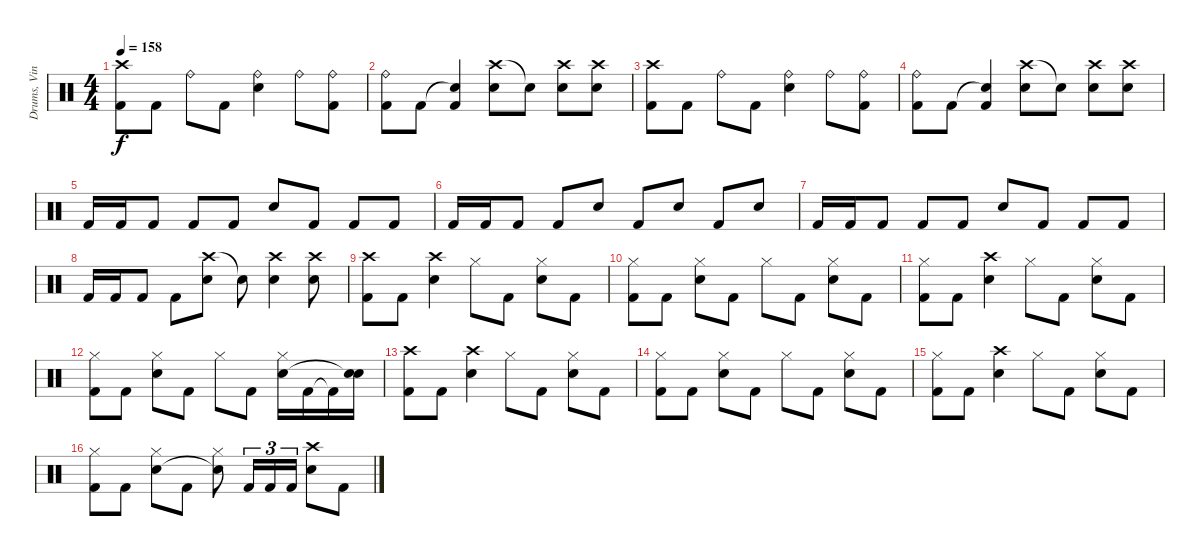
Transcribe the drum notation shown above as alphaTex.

\track ("Drums, Vinnie" "Drums, Vin") {instrument percussion}
\staff {score}
\articulation defaults
\ts (4 4)
\tempo 158
\clef neutral
\ks c
("Crash high (hit)" "Kick (hit) 2").8{dy f} "Kick (hit) 2".8 "Ride (bell)".8 "Kick (hit) 2".8 ("Ride (bell)" "Electric Snare (hit)").4 "Ride (bell)".8 ("Ride (bell)" "Kick (hit) 2").8 |
("Ride (bell)" "Kick (hit) 2").8 "Kick (hit) 2".8 ("Snare (hit)"{t} "Kick (hit) 2").4 ("Crash high (hit)" "Electric Snare (hit)").8 "Snare (hit)"{t}.8 ("Crash high (hit)" "Electric Snare (hit)").8 ("Crash high (hit)" "Electric Snare (hit)").8 |
("Crash high (hit)" "Kick (hit) 2").8 "Kick (hit) 2".8 "Ride (bell)".8 "Kick (hit) 2".8 ("Ride (bell)" "Electric Snare (hit)").4 "Ride (bell)".8 ("Ride (bell)" "Kick (hit) 2").8 |
("Ride (bell)" "Kick (hit) 2").8 "Kick (hit) 2".8 ("Snare (hit)"{t} "Kick (hit) 2").4 ("Crash high (hit)" "Electric Snare (hit)").8 "Snare (hit)"{t}.8 ("Crash high (hit)" "Electric Snare (hit)").8 ("Crash high (hit)" "Electric Snare (hit)").8 |
"Kick (hit) 2".16 "Kick (hit) 2".16 "Kick (hit) 2".8 "Kick (hit) 2".8 "Kick (hit) 2".8 "Electric Snare (hit)".8 "Kick (hit) 2".8 "Kick (hit) 2".8 "Kick (hit) 2".8 |
"Kick (hit) 2".16 "Kick (hit) 2".16 "Kick (hit) 2".8 "Kick (hit) 2".8 "Electric Snare (hit)".8 "Kick (hit) 2".8 "Electric Snare (hit)".8 "Kick (hit) 2".8 "Electric Snare (hit)".8 |
"Kick (hit) 2".16 "Kick (hit) 2".16 "Kick (hit) 2".8 "Kick (hit) 2".8 "Kick (hit) 2".8 "Electric Snare (hit)".8 "Kick (hit) 2".8 "Kick (hit) 2".8 "Kick (hit) 2".8 |
"Kick (hit) 2".16 "Kick (hit) 2".16 "Kick (hit) 2".8 "Kick (hit) 2".8 ("Crash high (hit)" "Electric Snare (hit)").8 "Snare (hit)"{t}.8 ("Crash high (hit)" "Electric Snare (hit)").4 ("Crash high (hit)" "Electric Snare (hit)").8 |
("Crash high (hit)" "Kick (hit) 2").8 "Kick (hit) 2".8 ("Crash high (hit)" "Electric Snare (hit)").4 "Hi-Hat (closed)".8 "Kick (hit) 2".8 ("Hi-Hat (closed)" "Electric Snare (hit)").8 "Kick (hit) 2".8 |
("Hi-Hat (closed)" "Kick (hit) 2").8 "Kick (hit) 2".8 ("Hi-Hat (closed)" "Electric Snare (hit)").8 "Kick (hit) 2".8 "Hi-Hat (closed)".8 "Kick (hit) 2".8 ("Hi-Hat (closed)" "Electric Snare (hit)").8 "Kick (hit) 2".8 |
("Hi-Hat (closed)" "Kick (hit) 2").8 "Kick (hit) 2".8 ("Crash high (hit)" "Electric Snare (hit)").4 "Hi-Hat (closed)".8 "Kick (hit) 2".8 ("Hi-Hat (closed)" "Electric Snare (hit)").8 "Kick (hit) 2".8 |
("Hi-Hat (closed)" "Kick (hit) 2").8 "Kick (hit) 2".8 ("Hi-Hat (closed)" "Electric Snare (hit)").8 "Kick (hit) 2".8 "Hi-Hat (closed)".8 "Kick (hit) 2".8 ("Hi-Hat (closed)" "Electric Snare (hit)").16 "Kick (hit) 2".16 "Kick (hit) 2"{t}.16 ("Electric Snare (hit)" "Snare (hit)"{t}).16 |
("Crash high (hit)" "Kick (hit) 2").8 "Kick (hit) 2".8 ("Crash high (hit)" "Electric Snare (hit)").4 "Hi-Hat (closed)".8 "Kick (hit) 2".8 ("Hi-Hat (closed)" "Electric Snare (hit)").8 "Kick (hit) 2".8 |
("Hi-Hat (closed)" "Kick (hit) 2").8 "Kick (hit) 2".8 ("Hi-Hat (closed)" "Electric Snare (hit)").8 "Kick (hit) 2".8 "Hi-Hat (closed)".8 "Kick (hit) 2".8 ("Hi-Hat (closed)" "Electric Snare (hit)").8 "Kick (hit) 2".8 |
("Hi-Hat (closed)" "Kick (hit) 2").8 "Kick (hit) 2".8 ("Crash high (hit)" "Electric Snare (hit)").4 "Hi-Hat (closed)".8 "Kick (hit) 2".8 ("Hi-Hat (closed)" "Electric Snare (hit)").8 "Kick (hit) 2".8 |
("Hi-Hat (closed)" "Kick (hit) 2").8 "Kick (hit) 2".8 ("Hi-Hat (closed)" "Electric Snare (hit)").8 "Kick (hit) 2".8 ("Hi-Hat (closed)" "Snare (hit)"{t}).8 "Kick (hit) 2".16{tu (3 2)} "Kick (hit) 2".16{tu (3 2)} "Kick (hit) 2".16{tu (3 2)} ("Crash high (hit)" "Electric Snare (hit)").8 "Kick (hit) 2".8
